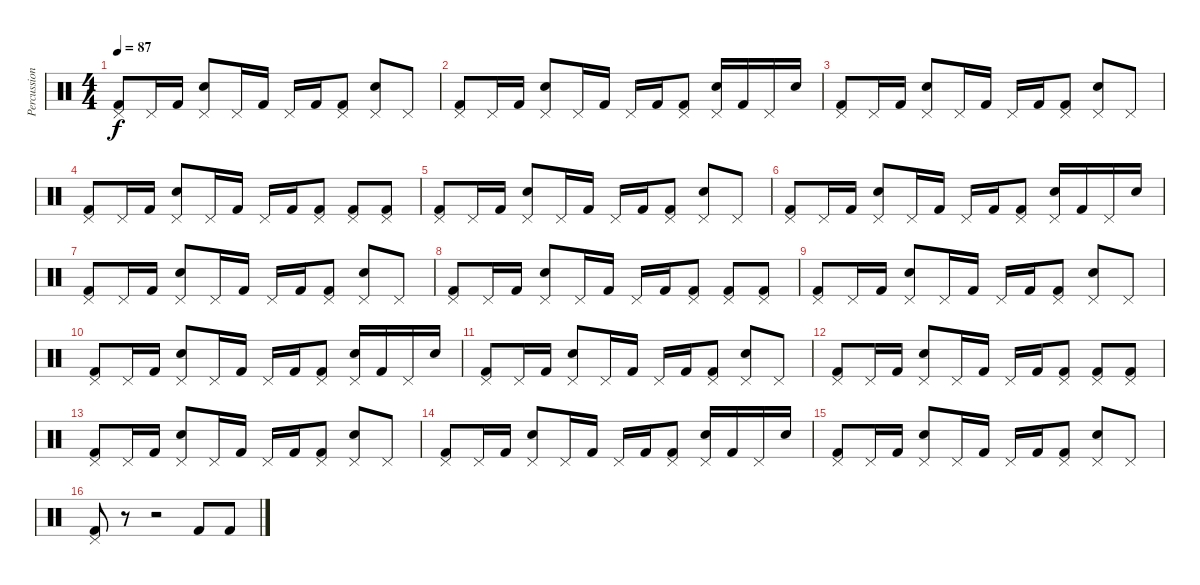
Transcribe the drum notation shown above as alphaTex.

\track ("Percussion" "Percussion") {instrument percussion}
\staff {score}
\articulation defaults
\ts (4 4)
\tempo 87
\clef neutral
\ks c
("Kick (hit) 2" "Pedal Hi-Hat (hit)").8{dy f} "Pedal Hi-Hat (hit)".16 "Kick (hit) 2".16 ("Snare (hit) 2" "Pedal Hi-Hat (hit)").8 "Pedal Hi-Hat (hit)".16 "Kick (hit) 2".16 "Pedal Hi-Hat (hit)".16 "Kick (hit) 2".16 ("Kick (hit) 2" "Pedal Hi-Hat (hit)").8 ("Snare (hit) 2" "Pedal Hi-Hat (hit)").8 "Pedal Hi-Hat (hit)".8 |
("Kick (hit) 2" "Pedal Hi-Hat (hit)").8 "Pedal Hi-Hat (hit)".16 "Kick (hit) 2".16 ("Snare (hit) 2" "Pedal Hi-Hat (hit)").8 "Pedal Hi-Hat (hit)".16 "Kick (hit) 2".16 "Pedal Hi-Hat (hit)".16 "Kick (hit) 2".16 ("Kick (hit) 2" "Pedal Hi-Hat (hit)").8 ("Snare (hit) 2" "Pedal Hi-Hat (hit)").16 "Kick (hit) 2".16 "Pedal Hi-Hat (hit)".16 "Snare (hit) 2".16 |
("Kick (hit) 2" "Pedal Hi-Hat (hit)").8 "Pedal Hi-Hat (hit)".16 "Kick (hit) 2".16 ("Snare (hit) 2" "Pedal Hi-Hat (hit)").8 "Pedal Hi-Hat (hit)".16 "Kick (hit) 2".16 "Pedal Hi-Hat (hit)".16 "Kick (hit) 2".16 ("Kick (hit) 2" "Pedal Hi-Hat (hit)").8 ("Snare (hit) 2" "Pedal Hi-Hat (hit)").8 "Pedal Hi-Hat (hit)".8 |
("Kick (hit) 2" "Pedal Hi-Hat (hit)").8 "Pedal Hi-Hat (hit)".16 "Kick (hit) 2".16 ("Snare (hit) 2" "Pedal Hi-Hat (hit)").8 "Pedal Hi-Hat (hit)".16 "Kick (hit) 2".16 "Pedal Hi-Hat (hit)".16 "Kick (hit) 2".16 ("Kick (hit) 2" "Pedal Hi-Hat (hit)").8 ("Kick (hit) 2" "Pedal Hi-Hat (hit)").8 ("Kick (hit) 2" "Pedal Hi-Hat (hit)").8 |
("Kick (hit) 2" "Pedal Hi-Hat (hit)").8 "Pedal Hi-Hat (hit)".16 "Kick (hit) 2".16 ("Snare (hit) 2" "Pedal Hi-Hat (hit)").8 "Pedal Hi-Hat (hit)".16 "Kick (hit) 2".16 "Pedal Hi-Hat (hit)".16 "Kick (hit) 2".16 ("Kick (hit) 2" "Pedal Hi-Hat (hit)").8 ("Snare (hit) 2" "Pedal Hi-Hat (hit)").8 "Pedal Hi-Hat (hit)".8 |
("Kick (hit) 2" "Pedal Hi-Hat (hit)").8 "Pedal Hi-Hat (hit)".16 "Kick (hit) 2".16 ("Snare (hit) 2" "Pedal Hi-Hat (hit)").8 "Pedal Hi-Hat (hit)".16 "Kick (hit) 2".16 "Pedal Hi-Hat (hit)".16 "Kick (hit) 2".16 ("Kick (hit) 2" "Pedal Hi-Hat (hit)").8 ("Snare (hit) 2" "Pedal Hi-Hat (hit)").16 "Kick (hit) 2".16 "Pedal Hi-Hat (hit)".16 "Snare (hit) 2".16 |
("Kick (hit) 2" "Pedal Hi-Hat (hit)").8 "Pedal Hi-Hat (hit)".16 "Kick (hit) 2".16 ("Snare (hit) 2" "Pedal Hi-Hat (hit)").8 "Pedal Hi-Hat (hit)".16 "Kick (hit) 2".16 "Pedal Hi-Hat (hit)".16 "Kick (hit) 2".16 ("Kick (hit) 2" "Pedal Hi-Hat (hit)").8 ("Snare (hit) 2" "Pedal Hi-Hat (hit)").8 "Pedal Hi-Hat (hit)".8 |
("Kick (hit) 2" "Pedal Hi-Hat (hit)").8 "Pedal Hi-Hat (hit)".16 "Kick (hit) 2".16 ("Snare (hit) 2" "Pedal Hi-Hat (hit)").8 "Pedal Hi-Hat (hit)".16 "Kick (hit) 2".16 "Pedal Hi-Hat (hit)".16 "Kick (hit) 2".16 ("Kick (hit) 2" "Pedal Hi-Hat (hit)").8 ("Kick (hit) 2" "Pedal Hi-Hat (hit)").8 ("Kick (hit) 2" "Pedal Hi-Hat (hit)").8 |
("Kick (hit) 2" "Pedal Hi-Hat (hit)").8 "Pedal Hi-Hat (hit)".16 "Kick (hit) 2".16 ("Snare (hit) 2" "Pedal Hi-Hat (hit)").8 "Pedal Hi-Hat (hit)".16 "Kick (hit) 2".16 "Pedal Hi-Hat (hit)".16 "Kick (hit) 2".16 ("Kick (hit) 2" "Pedal Hi-Hat (hit)").8 ("Snare (hit) 2" "Pedal Hi-Hat (hit)").8 "Pedal Hi-Hat (hit)".8 |
("Kick (hit) 2" "Pedal Hi-Hat (hit)").8 "Pedal Hi-Hat (hit)".16 "Kick (hit) 2".16 ("Snare (hit) 2" "Pedal Hi-Hat (hit)").8 "Pedal Hi-Hat (hit)".16 "Kick (hit) 2".16 "Pedal Hi-Hat (hit)".16 "Kick (hit) 2".16 ("Kick (hit) 2" "Pedal Hi-Hat (hit)").8 ("Snare (hit) 2" "Pedal Hi-Hat (hit)").16 "Kick (hit) 2".16 "Pedal Hi-Hat (hit)".16 "Snare (hit) 2".16 |
("Kick (hit) 2" "Pedal Hi-Hat (hit)").8 "Pedal Hi-Hat (hit)".16 "Kick (hit) 2".16 ("Snare (hit) 2" "Pedal Hi-Hat (hit)").8 "Pedal Hi-Hat (hit)".16 "Kick (hit) 2".16 "Pedal Hi-Hat (hit)".16 "Kick (hit) 2".16 ("Kick (hit) 2" "Pedal Hi-Hat (hit)").8 ("Snare (hit) 2" "Pedal Hi-Hat (hit)").8 "Pedal Hi-Hat (hit)".8 |
("Kick (hit) 2" "Pedal Hi-Hat (hit)").8 "Pedal Hi-Hat (hit)".16 "Kick (hit) 2".16 ("Snare (hit) 2" "Pedal Hi-Hat (hit)").8 "Pedal Hi-Hat (hit)".16 "Kick (hit) 2".16 "Pedal Hi-Hat (hit)".16 "Kick (hit) 2".16 ("Kick (hit) 2" "Pedal Hi-Hat (hit)").8 ("Kick (hit) 2" "Pedal Hi-Hat (hit)").8 ("Kick (hit) 2" "Pedal Hi-Hat (hit)").8 |
("Kick (hit) 2" "Pedal Hi-Hat (hit)").8 "Pedal Hi-Hat (hit)".16 "Kick (hit) 2".16 ("Snare (hit) 2" "Pedal Hi-Hat (hit)").8 "Pedal Hi-Hat (hit)".16 "Kick (hit) 2".16 "Pedal Hi-Hat (hit)".16 "Kick (hit) 2".16 ("Kick (hit) 2" "Pedal Hi-Hat (hit)").8 ("Snare (hit) 2" "Pedal Hi-Hat (hit)").8 "Pedal Hi-Hat (hit)".8 |
("Kick (hit) 2" "Pedal Hi-Hat (hit)").8 "Pedal Hi-Hat (hit)".16 "Kick (hit) 2".16 ("Snare (hit) 2" "Pedal Hi-Hat (hit)").8 "Pedal Hi-Hat (hit)".16 "Kick (hit) 2".16 "Pedal Hi-Hat (hit)".16 "Kick (hit) 2".16 ("Kick (hit) 2" "Pedal Hi-Hat (hit)").8 ("Snare (hit) 2" "Pedal Hi-Hat (hit)").16 "Kick (hit) 2".16 "Pedal Hi-Hat (hit)".16 "Snare (hit) 2".16 |
("Kick (hit) 2" "Pedal Hi-Hat (hit)").8 "Pedal Hi-Hat (hit)".16 "Kick (hit) 2".16 ("Snare (hit) 2" "Pedal Hi-Hat (hit)").8 "Pedal Hi-Hat (hit)".16 "Kick (hit) 2".16 "Pedal Hi-Hat (hit)".16 "Kick (hit) 2".16 ("Kick (hit) 2" "Pedal Hi-Hat (hit)").8 ("Snare (hit) 2" "Pedal Hi-Hat (hit)").8 "Pedal Hi-Hat (hit)".8 |
("Kick (hit) 2" "Pedal Hi-Hat (hit)").8 r.8 r.2 "Kick (hit) 2".8 "Kick (hit) 2".8
